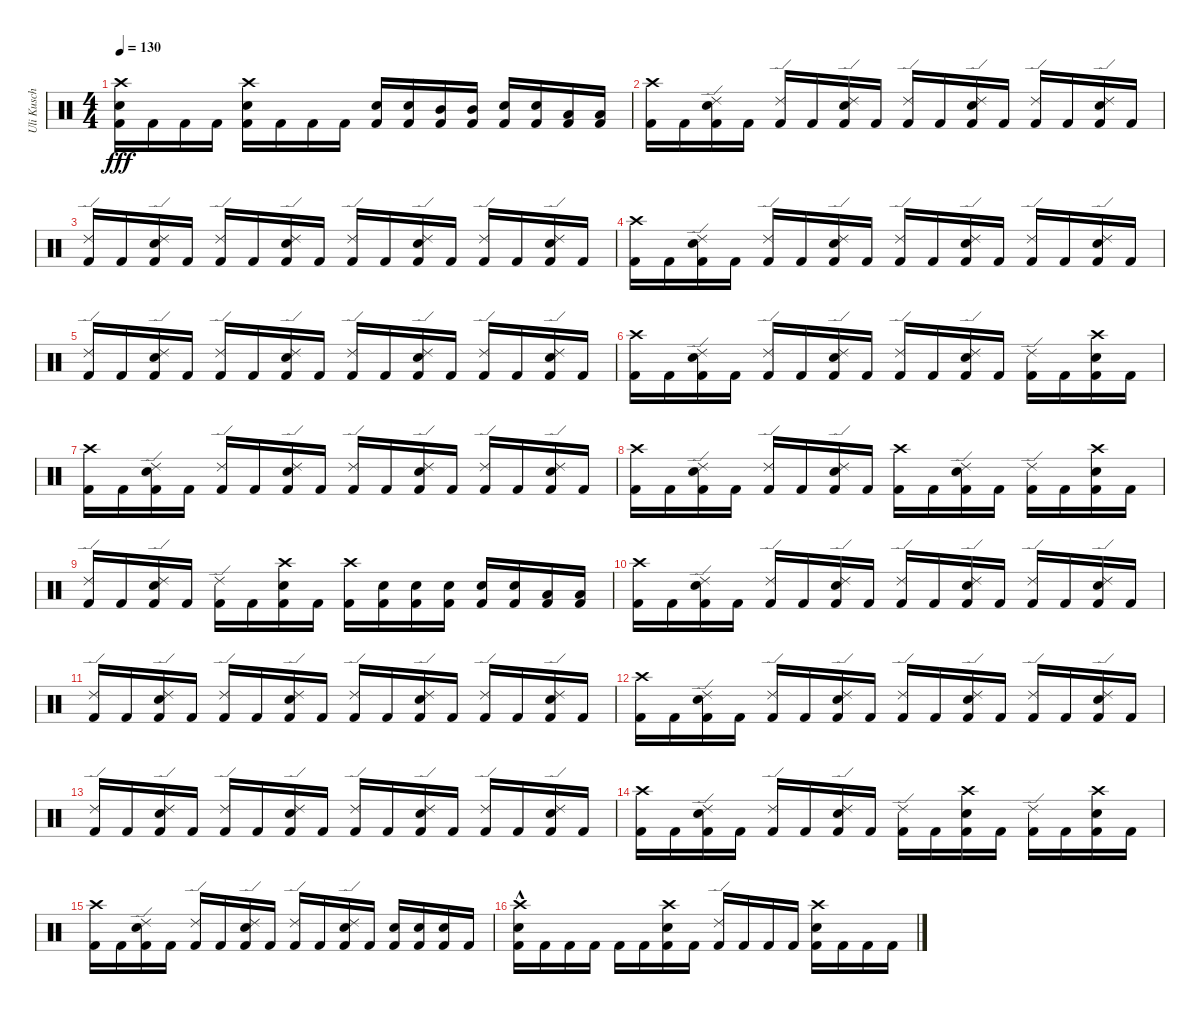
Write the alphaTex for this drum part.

\track ("Uli Kusch" "Uli Kusch") {instrument percussion}
\staff {score}
\articulation defaults
\ts (4 4)
\tempo 130
\clef neutral
\ks c
("Kick (hit) 2" "Electric Snare (hit)" "Crash high (hit)").16{dy fff} "Kick (hit) 2".16 "Kick (hit) 2".16 "Kick (hit) 2".16 ("Kick (hit) 2" "Electric Snare (hit)" "Crash high (hit)").16 "Kick (hit) 2".16 "Kick (hit) 2".16 "Kick (hit) 2".16 ("Kick (hit) 2" "Electric Snare (hit)").16 ("Kick (hit) 2" "Electric Snare (hit)").16 ("Kick (hit) 2" "Mid Tom (hit)").16 ("Kick (hit) 2" "Mid Tom (hit)").16 ("Kick (hit) 2" "Electric Snare (hit)").16 ("Kick (hit) 2" "Electric Snare (hit)").16 ("Kick (hit) 2" "Low Tom (hit)").16 ("Kick (hit) 2" "Low Tom (hit)").16 |
("Kick (hit) 2" "Crash high (hit)").16 "Kick (hit) 2".16 ("Kick (hit) 2" "Electric Snare (hit)" "Ride (edge) 2").16 "Kick (hit) 2".16 ("Kick (hit) 2" "Ride (edge) 2").16 "Kick (hit) 2".16 ("Kick (hit) 2" "Electric Snare (hit)" "Ride (edge) 2").16 "Kick (hit) 2".16 ("Kick (hit) 2" "Ride (edge) 2").16 "Kick (hit) 2".16 ("Kick (hit) 2" "Electric Snare (hit)" "Ride (edge) 2").16 "Kick (hit) 2".16 ("Kick (hit) 2" "Ride (edge) 2").16 "Kick (hit) 2".16 ("Kick (hit) 2" "Electric Snare (hit)" "Ride (edge) 2").16 "Kick (hit) 2".16 |
("Kick (hit) 2" "Ride (edge) 2").16 "Kick (hit) 2".16 ("Kick (hit) 2" "Electric Snare (hit)" "Ride (edge) 2").16 "Kick (hit) 2".16 ("Kick (hit) 2" "Ride (edge) 2").16 "Kick (hit) 2".16 ("Kick (hit) 2" "Electric Snare (hit)" "Ride (edge) 2").16 "Kick (hit) 2".16 ("Kick (hit) 2" "Ride (edge) 2").16 "Kick (hit) 2".16 ("Kick (hit) 2" "Electric Snare (hit)" "Ride (edge) 2").16 "Kick (hit) 2".16 ("Kick (hit) 2" "Ride (edge) 2").16 "Kick (hit) 2".16 ("Kick (hit) 2" "Electric Snare (hit)" "Ride (edge) 2").16 "Kick (hit) 2".16 |
("Kick (hit) 2" "Crash high (hit)").16 "Kick (hit) 2".16 ("Kick (hit) 2" "Electric Snare (hit)" "Ride (edge) 2").16 "Kick (hit) 2".16 ("Kick (hit) 2" "Ride (edge) 2").16 "Kick (hit) 2".16 ("Kick (hit) 2" "Electric Snare (hit)" "Ride (edge) 2").16 "Kick (hit) 2".16 ("Kick (hit) 2" "Ride (edge) 2").16 "Kick (hit) 2".16 ("Kick (hit) 2" "Electric Snare (hit)" "Ride (edge) 2").16 "Kick (hit) 2".16 ("Kick (hit) 2" "Ride (edge) 2").16 "Kick (hit) 2".16 ("Kick (hit) 2" "Electric Snare (hit)" "Ride (edge) 2").16 "Kick (hit) 2".16 |
("Kick (hit) 2" "Ride (edge) 2").16 "Kick (hit) 2".16 ("Kick (hit) 2" "Electric Snare (hit)" "Ride (edge) 2").16 "Kick (hit) 2".16 ("Kick (hit) 2" "Ride (edge) 2").16 "Kick (hit) 2".16 ("Kick (hit) 2" "Electric Snare (hit)" "Ride (edge) 2").16 "Kick (hit) 2".16 ("Kick (hit) 2" "Ride (edge) 2").16 "Kick (hit) 2".16 ("Kick (hit) 2" "Electric Snare (hit)" "Ride (edge) 2").16 "Kick (hit) 2".16 ("Kick (hit) 2" "Ride (edge) 2").16 "Kick (hit) 2".16 ("Kick (hit) 2" "Electric Snare (hit)" "Ride (edge) 2").16 "Kick (hit) 2".16 |
("Kick (hit) 2" "Crash high (hit)").16 "Kick (hit) 2".16 ("Kick (hit) 2" "Electric Snare (hit)" "Ride (edge) 2").16 "Kick (hit) 2".16 ("Kick (hit) 2" "Ride (edge) 2").16 "Kick (hit) 2".16 ("Kick (hit) 2" "Electric Snare (hit)" "Ride (edge) 2").16 "Kick (hit) 2".16 ("Kick (hit) 2" "Ride (edge) 2").16 "Kick (hit) 2".16 ("Kick (hit) 2" "Electric Snare (hit)" "Ride (edge) 2").16 "Kick (hit) 2".16 ("Kick (hit) 2" "Ride (edge) 2").16 "Kick (hit) 2".16 ("Kick (hit) 2" "Electric Snare (hit)" "Crash high (hit)").16 "Kick (hit) 2".16 |
("Kick (hit) 2" "Crash high (hit)").16 "Kick (hit) 2".16 ("Kick (hit) 2" "Electric Snare (hit)" "Ride (edge) 2").16 "Kick (hit) 2".16 ("Kick (hit) 2" "Ride (edge) 2").16 "Kick (hit) 2".16 ("Kick (hit) 2" "Electric Snare (hit)" "Ride (edge) 2").16 "Kick (hit) 2".16 ("Kick (hit) 2" "Ride (edge) 2").16 "Kick (hit) 2".16 ("Kick (hit) 2" "Electric Snare (hit)" "Ride (edge) 2").16 "Kick (hit) 2".16 ("Kick (hit) 2" "Ride (edge) 2").16 "Kick (hit) 2".16 ("Kick (hit) 2" "Electric Snare (hit)" "Ride (edge) 2").16 "Kick (hit) 2".16 |
("Kick (hit) 2" "Crash high (hit)").16 "Kick (hit) 2".16 ("Kick (hit) 2" "Electric Snare (hit)" "Ride (edge) 2").16 "Kick (hit) 2".16 ("Kick (hit) 2" "Ride (edge) 2").16 "Kick (hit) 2".16 ("Kick (hit) 2" "Electric Snare (hit)" "Ride (edge) 2").16 "Kick (hit) 2".16 ("Kick (hit) 2" "Crash high (hit)").16 "Kick (hit) 2".16 ("Kick (hit) 2" "Electric Snare (hit)" "Ride (edge) 2").16 "Kick (hit) 2".16 ("Kick (hit) 2" "Ride (edge) 2").16 "Kick (hit) 2".16 ("Kick (hit) 2" "Electric Snare (hit)" "Crash high (hit)").16 "Kick (hit) 2".16 |
("Kick (hit) 2" "Ride (edge) 2").16 "Kick (hit) 2".16 ("Kick (hit) 2" "Electric Snare (hit)" "Ride (edge) 2").16 "Kick (hit) 2".16 ("Kick (hit) 2" "Ride (edge) 2").16 "Kick (hit) 2".16 ("Kick (hit) 2" "Electric Snare (hit)" "Crash high (hit)").16 "Kick (hit) 2".16 ("Kick (hit) 2" "Crash high (hit)").16 ("Kick (hit) 2" "Electric Snare (hit)").16 ("Kick (hit) 2" "Electric Snare (hit)").16 ("Kick (hit) 2" "Electric Snare (hit)").16 ("Kick (hit) 2" "Electric Snare (hit)").16 ("Kick (hit) 2" "Electric Snare (hit)").16 ("Kick (hit) 2" "Low Tom (hit)").16 ("Kick (hit) 2" "Low Tom (hit)").16 |
("Kick (hit) 2" "Crash high (hit)").16 "Kick (hit) 2".16 ("Kick (hit) 2" "Electric Snare (hit)" "Ride (edge) 2").16 "Kick (hit) 2".16 ("Kick (hit) 2" "Ride (edge) 2").16 "Kick (hit) 2".16 ("Kick (hit) 2" "Electric Snare (hit)" "Ride (edge) 2").16 "Kick (hit) 2".16 ("Kick (hit) 2" "Ride (edge) 2").16 "Kick (hit) 2".16 ("Kick (hit) 2" "Electric Snare (hit)" "Ride (edge) 2").16 "Kick (hit) 2".16 ("Kick (hit) 2" "Ride (edge) 2").16 "Kick (hit) 2".16 ("Kick (hit) 2" "Electric Snare (hit)" "Ride (edge) 2").16 "Kick (hit) 2".16 |
("Kick (hit) 2" "Ride (edge) 2").16 "Kick (hit) 2".16 ("Kick (hit) 2" "Electric Snare (hit)" "Ride (edge) 2").16 "Kick (hit) 2".16 ("Kick (hit) 2" "Ride (edge) 2").16 "Kick (hit) 2".16 ("Kick (hit) 2" "Electric Snare (hit)" "Ride (edge) 2").16 "Kick (hit) 2".16 ("Kick (hit) 2" "Ride (edge) 2").16 "Kick (hit) 2".16 ("Kick (hit) 2" "Electric Snare (hit)" "Ride (edge) 2").16 "Kick (hit) 2".16 ("Kick (hit) 2" "Ride (edge) 2").16 "Kick (hit) 2".16 ("Kick (hit) 2" "Electric Snare (hit)" "Ride (edge) 2").16 "Kick (hit) 2".16 |
("Kick (hit) 2" "Crash high (hit)").16 "Kick (hit) 2".16 ("Kick (hit) 2" "Electric Snare (hit)" "Ride (edge) 2").16 "Kick (hit) 2".16 ("Kick (hit) 2" "Ride (edge) 2").16 "Kick (hit) 2".16 ("Kick (hit) 2" "Electric Snare (hit)" "Ride (edge) 2").16 "Kick (hit) 2".16 ("Kick (hit) 2" "Ride (edge) 2").16 "Kick (hit) 2".16 ("Kick (hit) 2" "Electric Snare (hit)" "Ride (edge) 2").16 "Kick (hit) 2".16 ("Kick (hit) 2" "Ride (edge) 2").16 "Kick (hit) 2".16 ("Kick (hit) 2" "Electric Snare (hit)" "Ride (edge) 2").16 "Kick (hit) 2".16 |
("Kick (hit) 2" "Ride (edge) 2").16 "Kick (hit) 2".16 ("Kick (hit) 2" "Electric Snare (hit)" "Ride (edge) 2").16 "Kick (hit) 2".16 ("Kick (hit) 2" "Ride (edge) 2").16 "Kick (hit) 2".16 ("Kick (hit) 2" "Electric Snare (hit)" "Ride (edge) 2").16 "Kick (hit) 2".16 ("Kick (hit) 2" "Ride (edge) 2").16 "Kick (hit) 2".16 ("Kick (hit) 2" "Electric Snare (hit)" "Ride (edge) 2").16 "Kick (hit) 2".16 ("Kick (hit) 2" "Ride (edge) 2").16 "Kick (hit) 2".16 ("Kick (hit) 2" "Electric Snare (hit)" "Ride (edge) 2").16 "Kick (hit) 2".16 |
("Kick (hit) 2" "Crash high (hit)").16 "Kick (hit) 2".16 ("Kick (hit) 2" "Electric Snare (hit)" "Ride (edge) 2").16 "Kick (hit) 2".16 ("Kick (hit) 2" "Ride (edge) 2").16 "Kick (hit) 2".16 ("Kick (hit) 2" "Electric Snare (hit)" "Ride (edge) 2").16 "Kick (hit) 2".16 ("Kick (hit) 2" "Ride (edge) 2").16 "Kick (hit) 2".16 ("Kick (hit) 2" "Electric Snare (hit)" "Crash high (hit)").16 "Kick (hit) 2".16 ("Kick (hit) 2" "Ride (edge) 2").16 "Kick (hit) 2".16 ("Kick (hit) 2" "Electric Snare (hit)" "Crash high (hit)").16 "Kick (hit) 2".16 |
("Kick (hit) 2" "Crash high (hit)").16 "Kick (hit) 2".16 ("Kick (hit) 2" "Electric Snare (hit)" "Ride (edge) 2").16 "Kick (hit) 2".16 ("Kick (hit) 2" "Ride (edge) 2").16 "Kick (hit) 2".16 ("Kick (hit) 2" "Electric Snare (hit)" "Ride (edge) 2").16 "Kick (hit) 2".16 ("Kick (hit) 2" "Ride (edge) 2").16 "Kick (hit) 2".16 ("Kick (hit) 2" "Electric Snare (hit)" "Ride (edge) 2").16 "Kick (hit) 2".16 ("Kick (hit) 2" "Electric Snare (hit)").16 ("Kick (hit) 2" "Electric Snare (hit)").16 ("Kick (hit) 2" "Electric Snare (hit)").16 "Kick (hit) 2".16 |
("Kick (hit) 2" "Crash high (hit)" "Electric Snare (hit)"{hac}).16 "Kick (hit) 2".16 "Kick (hit) 2".16 "Kick (hit) 2".16 "Kick (hit) 2".16 "Kick (hit) 2".16 ("Kick (hit) 2" "Crash high (hit)" "Electric Snare (hit)").16 "Kick (hit) 2".16 ("Kick (hit) 2" "Ride (edge) 2").16 "Kick (hit) 2".16 "Kick (hit) 2".16 "Kick (hit) 2".16 ("Kick (hit) 2" "Electric Snare (hit)" "Crash high (hit)").16 "Kick (hit) 2".16 "Kick (hit) 2".16 "Kick (hit) 2".16
